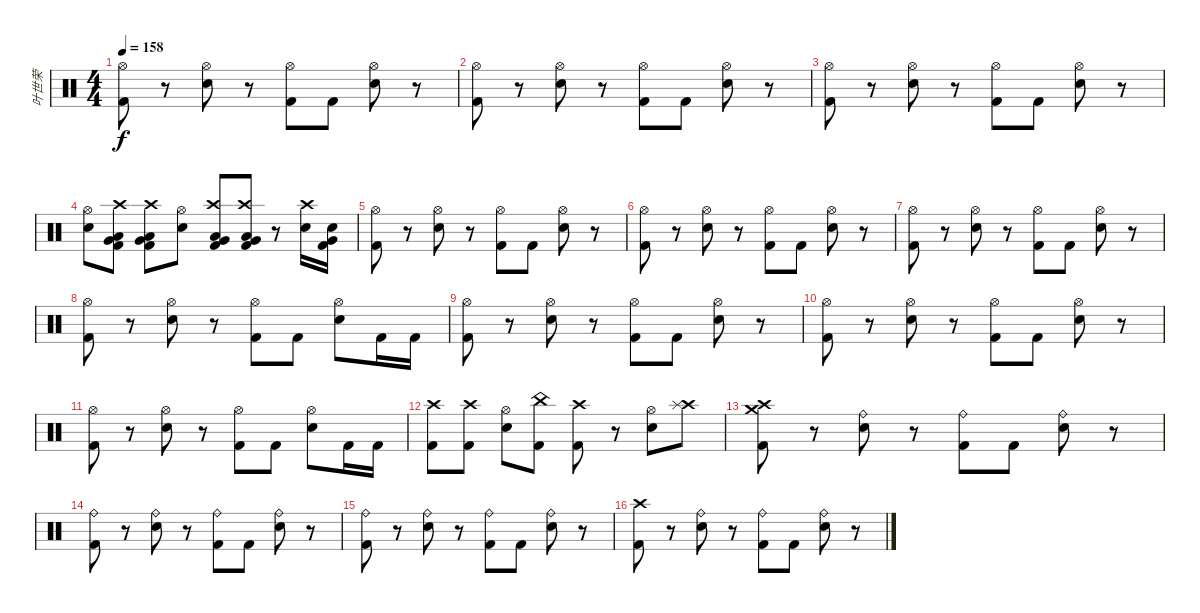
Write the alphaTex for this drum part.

\track ("叶世荣" "叶世荣") {instrument percussion}
\staff {score}
\articulation defaults
\ts (4 4)
\tempo 158
\clef neutral
\ks c
("Hi-Hat (open)" "Kick (hit) 2").8{dy f} r.8 ("Hi-Hat (open)" "Snare (hit) 2").8 r.8 ("Hi-Hat (open)" "Kick (hit) 2").8 "Kick (hit) 2".8 ("Hi-Hat (open)" "Snare (hit) 2").8 r.8 |
("Hi-Hat (open)" "Kick (hit) 2").8 r.8 ("Hi-Hat (open)" "Snare (hit) 2").8 r.8 ("Hi-Hat (open)" "Kick (hit) 2").8 "Kick (hit) 2".8 ("Hi-Hat (open)" "Snare (hit) 2").8 r.8 |
("Hi-Hat (open)" "Kick (hit) 2").8 r.8 ("Hi-Hat (open)" "Snare (hit) 2").8 r.8 ("Hi-Hat (open)" "Kick (hit) 2").8 "Kick (hit) 2".8 ("Hi-Hat (open)" "Snare (hit) 2").8 r.8 |
("Hi-Hat (open)" "Snare (hit) 2").8 ("Crash high (hit)" "Low Tom (hit)" "Very Low Tom (hit)" "Kick (hit) 2").8 ("Crash high (hit)" "Very Low Tom (hit)" "Low Floor Tom (hit)" "Kick (hit) 2").8 ("Hi-Hat (open)" "Snare (hit) 2").8 ("Crash high (hit)" "Low Tom (hit)" "Very Low Tom (hit)" "Kick (hit) 2").8 ("Crash high (hit)" "Very Low Tom (hit)" "Low Floor Tom (hit)" "Kick (hit) 2").8 r.8 ("Crash high (hit)" "Snare (hit) 2").16 ("Snare (hit) 2" "Very Low Tom (hit)" "Kick (hit) 2").16 |
("Hi-Hat (open)" "Kick (hit) 2").8 r.8 ("Hi-Hat (open)" "Snare (hit) 2").8 r.8 ("Hi-Hat (open)" "Kick (hit) 2").8 "Kick (hit) 2".8 ("Hi-Hat (open)" "Snare (hit) 2").8 r.8 |
("Hi-Hat (open)" "Kick (hit) 2").8 r.8 ("Hi-Hat (open)" "Snare (hit) 2").8 r.8 ("Hi-Hat (open)" "Kick (hit) 2").8 "Kick (hit) 2".8 ("Hi-Hat (open)" "Snare (hit) 2").8 r.8 |
("Hi-Hat (open)" "Kick (hit) 2").8 r.8 ("Hi-Hat (open)" "Snare (hit) 2").8 r.8 ("Hi-Hat (open)" "Kick (hit) 2").8 "Kick (hit) 2".8 ("Hi-Hat (open)" "Snare (hit) 2").8 r.8 |
("Hi-Hat (open)" "Kick (hit) 2").8 r.8 ("Hi-Hat (open)" "Snare (hit) 2").8 r.8 ("Hi-Hat (open)" "Kick (hit) 2").8 "Kick (hit) 2".8 ("Hi-Hat (open)" "Snare (hit) 2").8 "Kick (hit) 2".16 "Kick (hit) 2".16 |
("Hi-Hat (open)" "Kick (hit) 2").8 r.8 ("Hi-Hat (open)" "Snare (hit) 2").8 r.8 ("Hi-Hat (open)" "Kick (hit) 2").8 "Kick (hit) 2".8 ("Hi-Hat (open)" "Snare (hit) 2").8 r.8 |
("Hi-Hat (open)" "Kick (hit) 2").8 r.8 ("Hi-Hat (open)" "Snare (hit) 2").8 r.8 ("Hi-Hat (open)" "Kick (hit) 2").8 "Kick (hit) 2".8 ("Hi-Hat (open)" "Snare (hit) 2").8 r.8 |
("Hi-Hat (open)" "Kick (hit) 2").8 r.8 ("Hi-Hat (open)" "Snare (hit) 2").8 r.8 ("Hi-Hat (open)" "Kick (hit) 2").8 "Kick (hit) 2".8 ("Hi-Hat (open)" "Snare (hit) 2").8 "Kick (hit) 2".16 "Kick (hit) 2".16 |
("Crash high (hit)" "Kick (hit) 2").8 ("Crash high (hit)" "Kick (hit) 2").8 ("Hi-Hat (open)" "Snare (hit) 2").8 ("China (hit)" "Kick (hit) 2").8 ("Crash high (hit)" "Kick (hit) 2").8 r.8 ("Hi-Hat (open)" "Snare (hit) 2").8 ("Crash high (hit)" "Splash (hit)").8 |
("Crash high (hit)" "Crash medium (hit)" "Kick (hit) 2").8 r.8 ("Ride (bell)" "Snare (hit) 2").8 r.8 ("Ride (bell)" "Kick (hit) 2").8 "Kick (hit) 2".8 ("Ride (bell)" "Snare (hit) 2").8 r.8 |
("Ride (bell)" "Kick (hit) 2").8 r.8 ("Ride (bell)" "Snare (hit) 2").8 r.8 ("Ride (bell)" "Kick (hit) 2").8 "Kick (hit) 2".8 ("Ride (bell)" "Snare (hit) 2").8 r.8 |
("Ride (bell)" "Kick (hit) 2").8 r.8 ("Ride (bell)" "Snare (hit) 2").8 r.8 ("Ride (bell)" "Kick (hit) 2").8 "Kick (hit) 2".8 ("Ride (bell)" "Snare (hit) 2").8 r.8 |
("Crash high (hit)" "Kick (hit) 2").8 r.8 ("Ride (bell)" "Snare (hit) 2").8 r.8 ("Ride (bell)" "Kick (hit) 2").8 "Kick (hit) 2".8 ("Ride (bell)" "Snare (hit) 2").8 r.8
